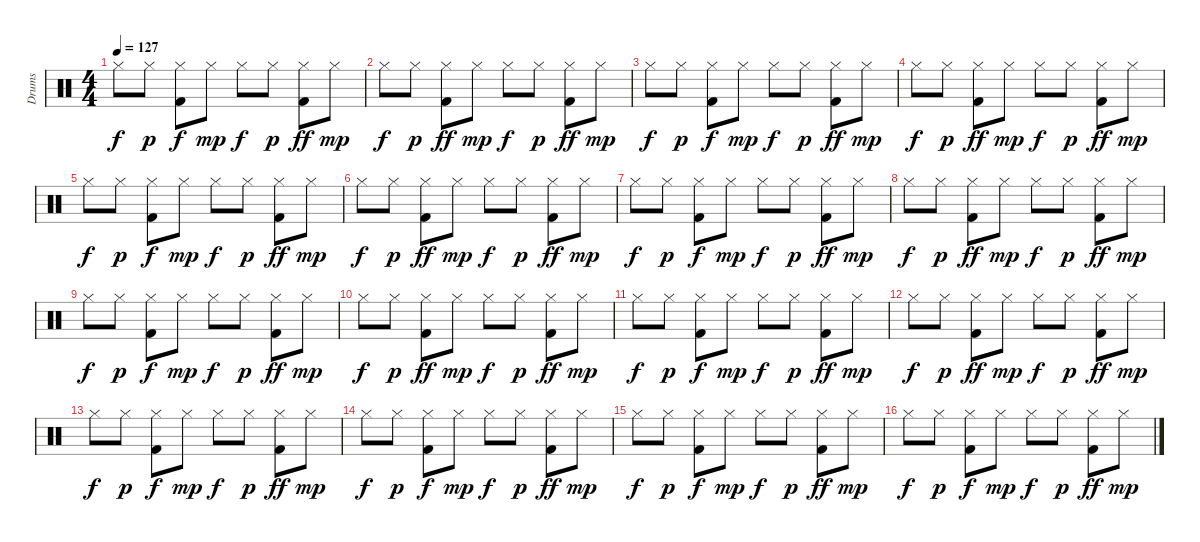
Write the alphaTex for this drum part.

\track ("Drums" "Drums") {instrument percussion}
\staff {score}
\articulation defaults
\ts (4 4)
\tempo 127
\clef neutral
\ks c "Hi-Hat (closed)".8{dy f} "Hi-Hat (closed)".8{dy p}
("Hi-Hat (closed)" "Kick (hit) 2").8{dy f} "Hi-Hat (closed)".8{dy mp} "Hi-Hat (closed)".8{dy f} "Hi-Hat (closed)".8{dy p} ("Hi-Hat (closed)" "Kick (hit) 2").8{dy ff} "Hi-Hat (closed)".8{dy mp} |
"Hi-Hat (closed)".8{dy f} "Hi-Hat (closed)".8{dy p} ("Hi-Hat (closed)" "Kick (hit) 2").8{dy ff} "Hi-Hat (closed)".8{dy mp} "Hi-Hat (closed)".8{dy f} "Hi-Hat (closed)".8{dy p} ("Hi-Hat (closed)" "Kick (hit) 2").8{dy ff} "Hi-Hat (closed)".8{dy mp} |
"Hi-Hat (closed)".8{dy f} "Hi-Hat (closed)".8{dy p} ("Hi-Hat (closed)" "Kick (hit) 2").8{dy f} "Hi-Hat (closed)".8{dy mp} "Hi-Hat (closed)".8{dy f} "Hi-Hat (closed)".8{dy p} ("Hi-Hat (closed)" "Kick (hit) 2").8{dy ff} "Hi-Hat (closed)".8{dy mp} |
"Hi-Hat (closed)".8{dy f} "Hi-Hat (closed)".8{dy p} ("Hi-Hat (closed)" "Kick (hit) 2").8{dy ff} "Hi-Hat (closed)".8{dy mp} "Hi-Hat (closed)".8{dy f} "Hi-Hat (closed)".8{dy p} ("Hi-Hat (closed)" "Kick (hit) 2").8{dy ff} "Hi-Hat (closed)".8{dy mp} |
"Hi-Hat (closed)".8{dy f} "Hi-Hat (closed)".8{dy p} ("Hi-Hat (closed)" "Kick (hit) 2").8{dy f} "Hi-Hat (closed)".8{dy mp} "Hi-Hat (closed)".8{dy f} "Hi-Hat (closed)".8{dy p} ("Hi-Hat (closed)" "Kick (hit) 2").8{dy ff} "Hi-Hat (closed)".8{dy mp} |
"Hi-Hat (closed)".8{dy f} "Hi-Hat (closed)".8{dy p} ("Hi-Hat (closed)" "Kick (hit) 2").8{dy ff} "Hi-Hat (closed)".8{dy mp} "Hi-Hat (closed)".8{dy f} "Hi-Hat (closed)".8{dy p} ("Hi-Hat (closed)" "Kick (hit) 2").8{dy ff} "Hi-Hat (closed)".8{dy mp} |
"Hi-Hat (closed)".8{dy f} "Hi-Hat (closed)".8{dy p} ("Hi-Hat (closed)" "Kick (hit) 2").8{dy f} "Hi-Hat (closed)".8{dy mp} "Hi-Hat (closed)".8{dy f} "Hi-Hat (closed)".8{dy p} ("Hi-Hat (closed)" "Kick (hit) 2").8{dy ff} "Hi-Hat (closed)".8{dy mp} |
"Hi-Hat (closed)".8{dy f} "Hi-Hat (closed)".8{dy p} ("Hi-Hat (closed)" "Kick (hit) 2").8{dy ff} "Hi-Hat (closed)".8{dy mp} "Hi-Hat (closed)".8{dy f} "Hi-Hat (closed)".8{dy p} ("Hi-Hat (closed)" "Kick (hit) 2").8{dy ff} "Hi-Hat (closed)".8{dy mp} |
"Hi-Hat (closed)".8{dy f} "Hi-Hat (closed)".8{dy p} ("Hi-Hat (closed)" "Kick (hit) 2").8{dy f} "Hi-Hat (closed)".8{dy mp} "Hi-Hat (closed)".8{dy f} "Hi-Hat (closed)".8{dy p} ("Hi-Hat (closed)" "Kick (hit) 2").8{dy ff} "Hi-Hat (closed)".8{dy mp} |
"Hi-Hat (closed)".8{dy f} "Hi-Hat (closed)".8{dy p} ("Hi-Hat (closed)" "Kick (hit) 2").8{dy ff} "Hi-Hat (closed)".8{dy mp} "Hi-Hat (closed)".8{dy f} "Hi-Hat (closed)".8{dy p} ("Hi-Hat (closed)" "Kick (hit) 2").8{dy ff} "Hi-Hat (closed)".8{dy mp} |
"Hi-Hat (closed)".8{dy f} "Hi-Hat (closed)".8{dy p} ("Hi-Hat (closed)" "Kick (hit) 2").8{dy f} "Hi-Hat (closed)".8{dy mp} "Hi-Hat (closed)".8{dy f} "Hi-Hat (closed)".8{dy p} ("Hi-Hat (closed)" "Kick (hit) 2").8{dy ff} "Hi-Hat (closed)".8{dy mp} |
"Hi-Hat (closed)".8{dy f} "Hi-Hat (closed)".8{dy p} ("Hi-Hat (closed)" "Kick (hit) 2").8{dy ff} "Hi-Hat (closed)".8{dy mp} "Hi-Hat (closed)".8{dy f} "Hi-Hat (closed)".8{dy p} ("Hi-Hat (closed)" "Kick (hit) 2").8{dy ff} "Hi-Hat (closed)".8{dy mp} |
"Hi-Hat (closed)".8{dy f} "Hi-Hat (closed)".8{dy p} ("Hi-Hat (closed)" "Kick (hit) 2").8{dy f} "Hi-Hat (closed)".8{dy mp} "Hi-Hat (closed)".8{dy f} "Hi-Hat (closed)".8{dy p} ("Hi-Hat (closed)" "Kick (hit) 2").8{dy ff} "Hi-Hat (closed)".8{dy mp} |
"Hi-Hat (closed)".8{dy f} "Hi-Hat (closed)".8{dy p} ("Hi-Hat (closed)" "Kick (hit) 2").8{dy f} "Hi-Hat (closed)".8{dy mp} "Hi-Hat (closed)".8{dy f} "Hi-Hat (closed)".8{dy p} ("Hi-Hat (closed)" "Kick (hit) 2").8{dy ff} "Hi-Hat (closed)".8{dy mp} |
"Hi-Hat (closed)".8{dy f} "Hi-Hat (closed)".8{dy p} ("Hi-Hat (closed)" "Kick (hit) 2").8{dy f} "Hi-Hat (closed)".8{dy mp} "Hi-Hat (closed)".8{dy f} "Hi-Hat (closed)".8{dy p} ("Hi-Hat (closed)" "Kick (hit) 2").8{dy ff} "Hi-Hat (closed)".8{dy mp} |
"Hi-Hat (closed)".8{dy f} "Hi-Hat (closed)".8{dy p} ("Hi-Hat (closed)" "Kick (hit) 2").8{dy f} "Hi-Hat (closed)".8{dy mp} "Hi-Hat (closed)".8{dy f} "Hi-Hat (closed)".8{dy p} ("Hi-Hat (closed)" "Kick (hit) 2").8{dy ff} "Hi-Hat (closed)".8{dy mp}
